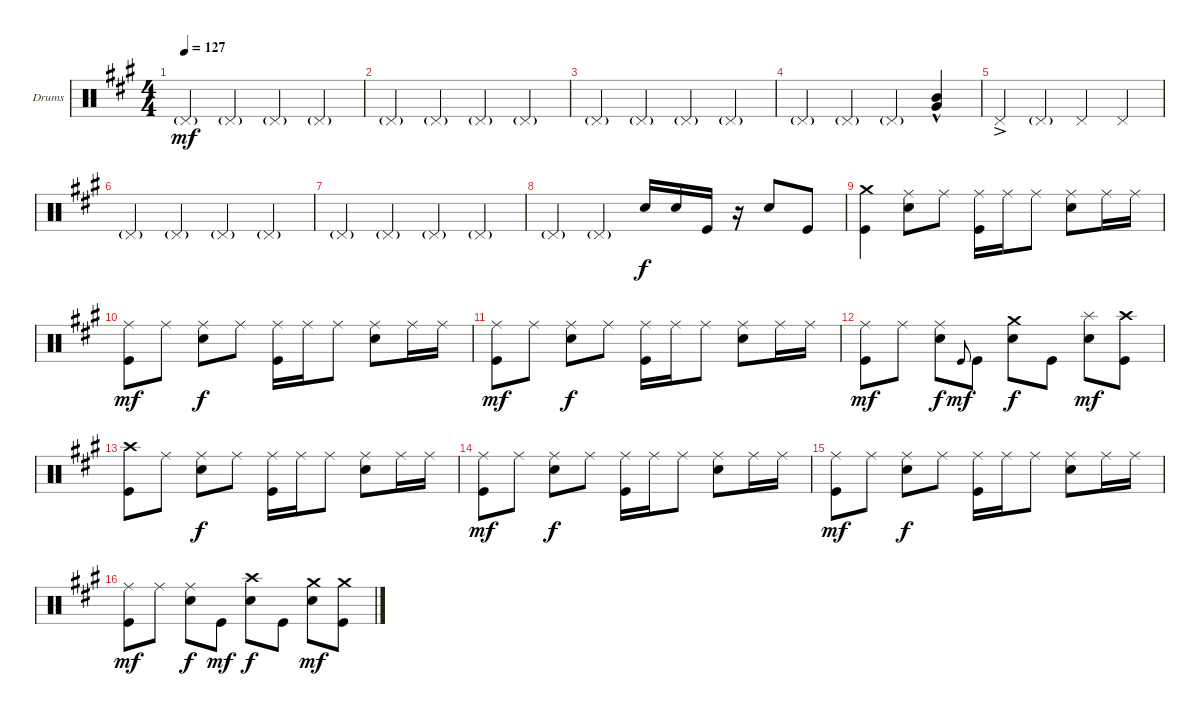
\bracketExtendMode groupsimilarinstruments
\firstSystemTrackNameOrientation horizontal
\otherSystemsTrackNameOrientation horizontal
\track ("Drumkit" "Drums") {instrument percussion}
\staff {score}
\articulation defaults
\ts (4 4)
\tempo 127
\clef neutral
\ks f#minor "Pedal Hi-Hat (hit)"{g}.4{dy mf} "Pedal Hi-Hat (hit)"{g}.4 "Pedal Hi-Hat (hit)"{g}.4 "Pedal Hi-Hat (hit)"{g}.4
|
"Pedal Hi-Hat (hit)"{g}.4 "Pedal Hi-Hat (hit)"{g}.4 "Pedal Hi-Hat (hit)"{g}.4 "Pedal Hi-Hat (hit)"{g}.4 |
"Pedal Hi-Hat (hit)"{g}.4 "Pedal Hi-Hat (hit)"{g}.4 "Pedal Hi-Hat (hit)"{g}.4 "Pedal Hi-Hat (hit)"{g}.4 |
"Pedal Hi-Hat (hit)"{g}.4 "Pedal Hi-Hat (hit)"{g}.4 "Pedal Hi-Hat (hit)"{g}.4 ("Very Low Tom (hit)"{hac} "Mid Tom (hit)").4 |
"Pedal Hi-Hat (hit)"{ac}.4 "Pedal Hi-Hat (hit)"{g}.4 "Pedal Hi-Hat (hit)".4 "Pedal Hi-Hat (hit)".4 |
"Pedal Hi-Hat (hit)"{g}.4 "Pedal Hi-Hat (hit)"{g}.4 "Pedal Hi-Hat (hit)"{g}.4 "Pedal Hi-Hat (hit)"{g}.4 |
"Pedal Hi-Hat (hit)"{g}.4 "Pedal Hi-Hat (hit)"{g}.4 "Pedal Hi-Hat (hit)"{g}.4 "Pedal Hi-Hat (hit)"{g}.4 |
"Pedal Hi-Hat (hit)"{g}.4 "Pedal Hi-Hat (hit)"{g}.4 "Snare (hit) 2".16{dy f} "Snare (hit) 2".16 "Kick (hit)".16 r.16 "Snare (hit) 2".8 "Kick (hit)".8 |
("Crash medium (hit)" "Kick (hit)").4 ("Snare (hit) 2" "Ride (middle)").8 "Ride (middle)".8 ("Ride (middle)" "Kick (hit)").16 "Ride (middle)".16 "Ride (middle)".8 ("Ride (middle)" "Snare (hit) 2").8 "Ride (middle)".16 "Ride (middle)".16 |
("Kick (hit)" "Ride (middle)").8{dy mf} "Ride (middle)".8 ("Snare (hit) 2" "Ride (middle)").8{dy f} "Ride (middle)".8 ("Ride (middle)" "Kick (hit)").16 "Ride (middle)".16 "Ride (middle)".8 ("Ride (middle)" "Snare (hit) 2").8 "Ride (middle)".16 "Ride (middle)".16 |
("Kick (hit)" "Ride (middle)").8{dy mf} "Ride (middle)".8 ("Snare (hit) 2" "Ride (middle)").8{dy f} "Ride (middle)".8 ("Ride (middle)" "Kick (hit)").16 "Ride (middle)".16 "Ride (middle)".8 ("Ride (middle)" "Snare (hit) 2").8 "Ride (middle)".16 "Ride (middle)".16 |
("Kick (hit)" "Ride (middle)").8{dy mf} "Ride (middle)".8 ("Snare (hit) 2" "Ride (middle)").8{dy f} "Kick (hit)".8{gr onbeat dy mf} "Kick (hit)".8 ("Snare (hit) 2" "Crash medium (hit)").8{dy f} "Kick (hit)".8 ("Snare (hit) 2" "Splash (hit)").8{dy mf} ("Kick (hit)" "Crash high (hit)").8 |
("Kick (hit)" "Crash high (hit)").8 "Ride (middle)".8 ("Snare (hit) 2" "Ride (middle)").8{dy f} "Ride (middle)".8 ("Ride (middle)" "Kick (hit)").16 "Ride (middle)".16 "Ride (middle)".8 ("Ride (middle)" "Snare (hit) 2").8 "Ride (middle)".16 "Ride (middle)".16 |
("Kick (hit)" "Ride (middle)").8{dy mf} "Ride (middle)".8 ("Snare (hit) 2" "Ride (middle)").8{dy f} "Ride (middle)".8 ("Ride (middle)" "Kick (hit)").16 "Ride (middle)".16 "Ride (middle)".8 ("Ride (middle)" "Snare (hit) 2").8 "Ride (middle)".16 "Ride (middle)".16 |
("Kick (hit)" "Ride (middle)").8{dy mf} "Ride (middle)".8 ("Snare (hit) 2" "Ride (middle)").8{dy f} "Ride (middle)".8 ("Ride (middle)" "Kick (hit)").16 "Ride (middle)".16 "Ride (middle)".8 ("Ride (middle)" "Snare (hit) 2").8 "Ride (middle)".16 "Ride (middle)".16 |
("Kick (hit)" "Ride (middle)").8{dy mf} "Ride (middle)".8 ("Snare (hit) 2" "Ride (middle)").8{dy f} "Kick (hit)".8{dy mf} ("Snare (hit) 2" "Crash high (hit)").8{dy f} "Kick (hit)".8 ("Snare (hit) 2" "Crash medium (hit)").8{dy mf} ("Kick (hit)" "Crash medium (hit)").8
